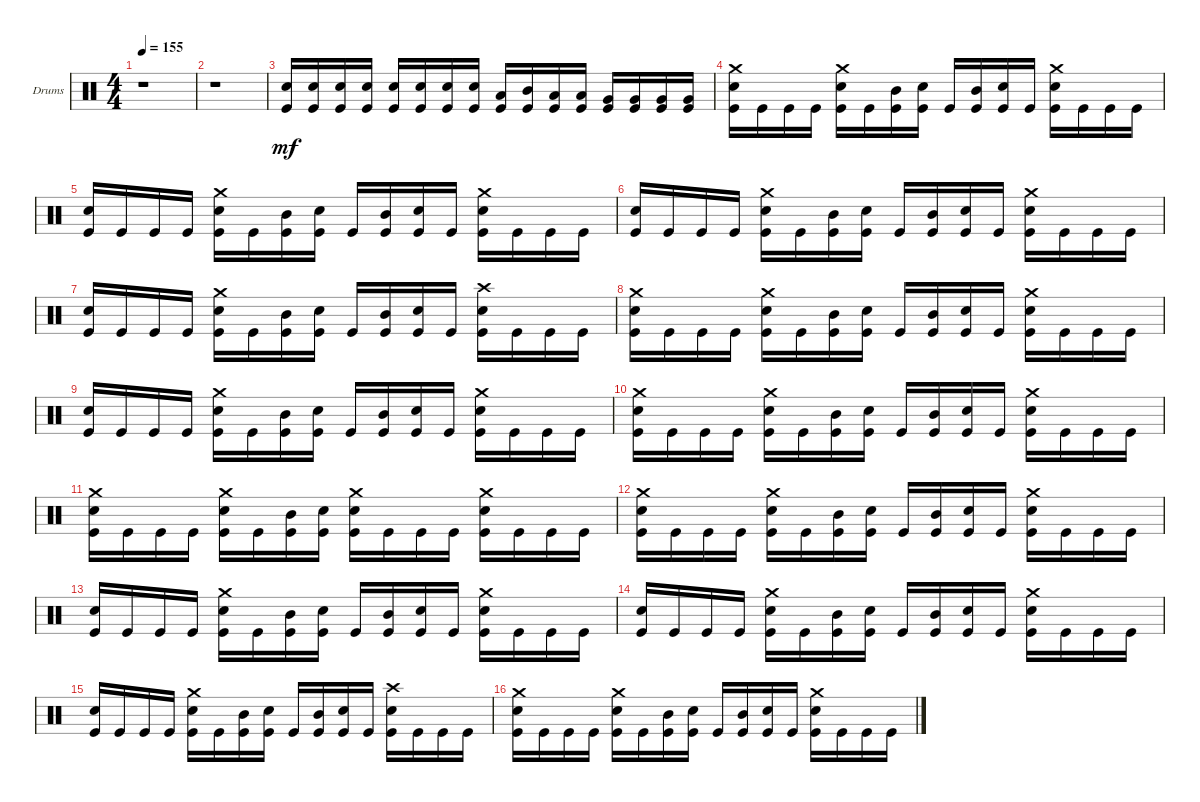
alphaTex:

\defaultSystemsLayout 4
\bracketExtendMode groupsimilarinstruments
\firstSystemTrackNameOrientation horizontal
\otherSystemsTrackNameOrientation horizontal
\track ("Drumkit" "Drums") {instrument percussion}
\staff {score}
\articulation defaults
\ts (4 4)
\tempo 155
\clef neutral
\ks c
r.1{dy mf} |
r.1 |
("Kick (hit)" "Snare (hit) 2").16 ("Kick (hit)" "Snare (hit) 2").16 ("Kick (hit)" "Snare (hit) 2").16 ("Kick (hit)" "Snare (hit) 2").16 ("Kick (hit)" "Snare (hit) 2").16 ("Kick (hit)" "Snare (hit) 2").16 ("Kick (hit)" "Snare (hit) 2").16 ("Kick (hit)" "Snare (hit) 2").16 ("Kick (hit)" "Low Tom (hit)").16 ("Kick (hit)" "Mid Tom (hit)").16 ("Kick (hit)" "Low Tom (hit)").16 ("Kick (hit)" "Low Tom (hit)").16 ("Kick (hit)" "Very Low Tom (hit)").16 ("Kick (hit)" "Very Low Tom (hit)").16 ("Kick (hit)" "Very Low Tom (hit)").16 ("Kick (hit)" "Very Low Tom (hit)").16 |
("Kick (hit)" "Snare (hit) 2" "Crash medium (hit)").16 "Kick (hit)".16 "Kick (hit)".16 "Kick (hit)".16 ("Kick (hit)" "Snare (hit) 2" "Crash medium (hit)").16 "Kick (hit)".16 ("Kick (hit)" "Mid Tom (hit)").16 ("Kick (hit)" "Snare (hit) 2").16 "Kick (hit)".16 ("Kick (hit)" "Mid Tom (hit)").16 ("Kick (hit)" "Snare (hit) 2").16 "Kick (hit)".16 ("Kick (hit)" "Snare (hit) 2" "Crash medium (hit)").16 "Kick (hit)".16 "Kick (hit)".16 "Kick (hit)".16 |
("Kick (hit)" "Snare (hit) 2").16 "Kick (hit)".16 "Kick (hit)".16 "Kick (hit)".16 ("Kick (hit)" "Snare (hit) 2" "Crash medium (hit)").16 "Kick (hit)".16 ("Kick (hit)" "Mid Tom (hit)").16 ("Kick (hit)" "Snare (hit) 2").16 "Kick (hit)".16 ("Kick (hit)" "Mid Tom (hit)").16 ("Kick (hit)" "Snare (hit) 2").16 "Kick (hit)".16 ("Kick (hit)" "Snare (hit) 2" "Crash medium (hit)").16 "Kick (hit)".16 "Kick (hit)".16 "Kick (hit)".16 |
("Kick (hit)" "Snare (hit) 2").16 "Kick (hit)".16 "Kick (hit)".16 "Kick (hit)".16 ("Kick (hit)" "Snare (hit) 2" "Crash medium (hit)").16 "Kick (hit)".16 ("Kick (hit)" "Mid Tom (hit)").16 ("Kick (hit)" "Snare (hit) 2").16 "Kick (hit)".16 ("Kick (hit)" "Mid Tom (hit)").16 ("Kick (hit)" "Snare (hit) 2").16 "Kick (hit)".16 ("Kick (hit)" "Snare (hit) 2" "Crash medium (hit)").16 "Kick (hit)".16 "Kick (hit)".16 "Kick (hit)".16 |
("Kick (hit)" "Snare (hit) 2").16 "Kick (hit)".16 "Kick (hit)".16 "Kick (hit)".16 ("Kick (hit)" "Snare (hit) 2" "Crash medium (hit)").16 "Kick (hit)".16 ("Kick (hit)" "Mid Tom (hit)").16 ("Kick (hit)" "Snare (hit) 2").16 "Kick (hit)".16 ("Kick (hit)" "Mid Tom (hit)").16 ("Kick (hit)" "Snare (hit) 2").16 "Kick (hit)".16 ("Kick (hit)" "Snare (hit) 2" "Crash high (hit)").16 "Kick (hit)".16 "Kick (hit)".16 "Kick (hit)".16 |
("Kick (hit)" "Snare (hit) 2" "Crash medium (hit)").16 "Kick (hit)".16 "Kick (hit)".16 "Kick (hit)".16 ("Kick (hit)" "Snare (hit) 2" "Crash medium (hit)").16 "Kick (hit)".16 ("Kick (hit)" "Mid Tom (hit)").16 ("Kick (hit)" "Snare (hit) 2").16 "Kick (hit)".16 ("Kick (hit)" "Mid Tom (hit)").16 ("Kick (hit)" "Snare (hit) 2").16 "Kick (hit)".16 ("Kick (hit)" "Snare (hit) 2" "Crash medium (hit)").16 "Kick (hit)".16 "Kick (hit)".16 "Kick (hit)".16 |
("Kick (hit)" "Snare (hit) 2").16 "Kick (hit)".16 "Kick (hit)".16 "Kick (hit)".16 ("Kick (hit)" "Snare (hit) 2" "Crash medium (hit)").16 "Kick (hit)".16 ("Kick (hit)" "Mid Tom (hit)").16 ("Kick (hit)" "Snare (hit) 2").16 "Kick (hit)".16 ("Kick (hit)" "Mid Tom (hit)").16 ("Kick (hit)" "Snare (hit) 2").16 "Kick (hit)".16 ("Kick (hit)" "Snare (hit) 2" "Crash medium (hit)").16 "Kick (hit)".16 "Kick (hit)".16 "Kick (hit)".16 |
("Kick (hit)" "Snare (hit) 2" "Crash medium (hit)").16 "Kick (hit)".16 "Kick (hit)".16 "Kick (hit)".16 ("Kick (hit)" "Snare (hit) 2" "Crash medium (hit)").16 "Kick (hit)".16 ("Kick (hit)" "Mid Tom (hit)").16 ("Kick (hit)" "Snare (hit) 2").16 "Kick (hit)".16 ("Kick (hit)" "Mid Tom (hit)").16 ("Kick (hit)" "Snare (hit) 2").16 "Kick (hit)".16 ("Kick (hit)" "Snare (hit) 2" "Crash medium (hit)").16 "Kick (hit)".16 "Kick (hit)".16 "Kick (hit)".16 |
("Kick (hit)" "Snare (hit) 2" "Crash medium (hit)").16 "Kick (hit)".16 "Kick (hit)".16 "Kick (hit)".16 ("Kick (hit)" "Snare (hit) 2" "Crash medium (hit)").16 "Kick (hit)".16 ("Kick (hit)" "Mid Tom (hit)").16 ("Kick (hit)" "Snare (hit) 2").16 ("Kick (hit)" "Snare (hit) 2" "Crash medium (hit)").16 "Kick (hit)".16 "Kick (hit)".16 "Kick (hit)".16 ("Kick (hit)" "Snare (hit) 2" "Crash medium (hit)").16 "Kick (hit)".16 "Kick (hit)".16 "Kick (hit)".16 |
("Kick (hit)" "Snare (hit) 2" "Crash medium (hit)").16 "Kick (hit)".16 "Kick (hit)".16 "Kick (hit)".16 ("Kick (hit)" "Snare (hit) 2" "Crash medium (hit)").16 "Kick (hit)".16 ("Kick (hit)" "Mid Tom (hit)").16 ("Kick (hit)" "Snare (hit) 2").16 "Kick (hit)".16 ("Kick (hit)" "Mid Tom (hit)").16 ("Kick (hit)" "Snare (hit) 2").16 "Kick (hit)".16 ("Kick (hit)" "Snare (hit) 2" "Crash medium (hit)").16 "Kick (hit)".16 "Kick (hit)".16 "Kick (hit)".16 |
("Kick (hit)" "Snare (hit) 2").16 "Kick (hit)".16 "Kick (hit)".16 "Kick (hit)".16 ("Kick (hit)" "Snare (hit) 2" "Crash medium (hit)").16 "Kick (hit)".16 ("Kick (hit)" "Mid Tom (hit)").16 ("Kick (hit)" "Snare (hit) 2").16 "Kick (hit)".16 ("Kick (hit)" "Mid Tom (hit)").16 ("Kick (hit)" "Snare (hit) 2").16 "Kick (hit)".16 ("Kick (hit)" "Snare (hit) 2" "Crash medium (hit)").16 "Kick (hit)".16 "Kick (hit)".16 "Kick (hit)".16 |
("Kick (hit)" "Snare (hit) 2").16 "Kick (hit)".16 "Kick (hit)".16 "Kick (hit)".16 ("Kick (hit)" "Snare (hit) 2" "Crash medium (hit)").16 "Kick (hit)".16 ("Kick (hit)" "Mid Tom (hit)").16 ("Kick (hit)" "Snare (hit) 2").16 "Kick (hit)".16 ("Kick (hit)" "Mid Tom (hit)").16 ("Kick (hit)" "Snare (hit) 2").16 "Kick (hit)".16 ("Kick (hit)" "Snare (hit) 2" "Crash medium (hit)").16 "Kick (hit)".16 "Kick (hit)".16 "Kick (hit)".16 |
("Kick (hit)" "Snare (hit) 2").16 "Kick (hit)".16 "Kick (hit)".16 "Kick (hit)".16 ("Kick (hit)" "Snare (hit) 2" "Crash medium (hit)").16 "Kick (hit)".16 ("Kick (hit)" "Mid Tom (hit)").16 ("Kick (hit)" "Snare (hit) 2").16 "Kick (hit)".16 ("Kick (hit)" "Mid Tom (hit)").16 ("Kick (hit)" "Snare (hit) 2").16 "Kick (hit)".16 ("Kick (hit)" "Snare (hit) 2" "Crash high (hit)").16 "Kick (hit)".16 "Kick (hit)".16 "Kick (hit)".16 |
("Kick (hit)" "Snare (hit) 2" "Crash medium (hit)").16 "Kick (hit)".16 "Kick (hit)".16 "Kick (hit)".16 ("Kick (hit)" "Snare (hit) 2" "Crash medium (hit)").16 "Kick (hit)".16 ("Kick (hit)" "Mid Tom (hit)").16 ("Kick (hit)" "Snare (hit) 2").16 "Kick (hit)".16 ("Kick (hit)" "Mid Tom (hit)").16 ("Kick (hit)" "Snare (hit) 2").16 "Kick (hit)".16 ("Kick (hit)" "Snare (hit) 2" "Crash medium (hit)").16 "Kick (hit)".16 "Kick (hit)".16 "Kick (hit)".16
